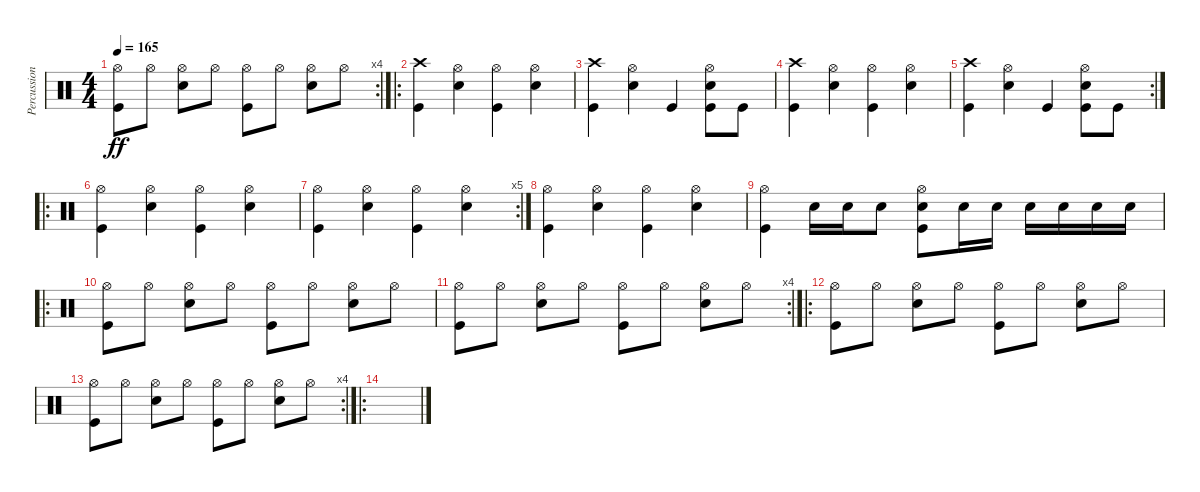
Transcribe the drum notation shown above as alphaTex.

\track ("Percussioni" "Percussion") {instrument percussion}
\staff {score}
\articulation defaults
\rc 4
\ts (4 4)
\tempo 165
\clef neutral
\ks c
("Hi-Hat (open)" "Kick (hit)").8{dy ff} "Hi-Hat (open)".8 ("Hi-Hat (open)" "Electric Snare (hit)").8 "Hi-Hat (open)".8 ("Hi-Hat (open)" "Kick (hit)").8 "Hi-Hat (open)".8 ("Hi-Hat (open)" "Electric Snare (hit)").8 "Hi-Hat (open)".8 |
\ro
("Crash high (hit)" "Kick (hit)").4 ("Hi-Hat (open)" "Electric Snare (hit)").4 ("Hi-Hat (open)" "Kick (hit)").4 ("Hi-Hat (open)" "Electric Snare (hit)").4 |
("Crash high (hit)" "Kick (hit)").4 ("Hi-Hat (open)" "Electric Snare (hit)").4 "Kick (hit)".4 ("Hi-Hat (open)" "Electric Snare (hit)" "Kick (hit)").8 "Kick (hit)".8 |
("Crash high (hit)" "Kick (hit)").4 ("Hi-Hat (open)" "Electric Snare (hit)").4 ("Hi-Hat (open)" "Kick (hit)").4 ("Hi-Hat (open)" "Electric Snare (hit)").4 |
\rc 2
("Crash high (hit)" "Kick (hit)").4 ("Hi-Hat (open)" "Electric Snare (hit)").4 "Kick (hit)".4 ("Hi-Hat (open)" "Electric Snare (hit)" "Kick (hit)").8 "Kick (hit)".8 |
\ro
("Hi-Hat (open)" "Kick (hit)").4 ("Hi-Hat (open)" "Electric Snare (hit)").4 ("Hi-Hat (open)" "Kick (hit)").4 ("Hi-Hat (open)" "Electric Snare (hit)").4 |
\rc 5
("Hi-Hat (open)" "Kick (hit)").4 ("Hi-Hat (open)" "Electric Snare (hit)").4 ("Hi-Hat (open)" "Kick (hit)").4 ("Hi-Hat (open)" "Electric Snare (hit)").4 |
("Hi-Hat (open)" "Kick (hit)").4 ("Hi-Hat (open)" "Electric Snare (hit)").4 ("Hi-Hat (open)" "Kick (hit)").4 ("Hi-Hat (open)" "Electric Snare (hit)").4 |
("Hi-Hat (open)" "Kick (hit)").4 "Electric Snare (hit)".16 "Electric Snare (hit)".16 "Electric Snare (hit)".8 ("Hi-Hat (open)" "Electric Snare (hit)" "Kick (hit)").8 "Electric Snare (hit)".16 "Electric Snare (hit)".16 "Electric Snare (hit)".16 "Electric Snare (hit)".16 "Electric Snare (hit)".16 "Electric Snare (hit)".16 |
\ro
("Hi-Hat (open)" "Kick (hit)").8 "Hi-Hat (open)".8 ("Hi-Hat (open)" "Electric Snare (hit)").8 "Hi-Hat (open)".8 ("Hi-Hat (open)" "Kick (hit)").8 "Hi-Hat (open)".8 ("Hi-Hat (open)" "Electric Snare (hit)").8 "Hi-Hat (open)".8 |
\rc 4
("Hi-Hat (open)" "Kick (hit)").8 "Hi-Hat (open)".8 ("Hi-Hat (open)" "Electric Snare (hit)").8 "Hi-Hat (open)".8 ("Hi-Hat (open)" "Kick (hit)").8 "Hi-Hat (open)".8 ("Hi-Hat (open)" "Electric Snare (hit)").8 "Hi-Hat (open)".8 |
\ro
("Hi-Hat (open)" "Kick (hit)").8 "Hi-Hat (open)".8 ("Hi-Hat (open)" "Electric Snare (hit)").8 "Hi-Hat (open)".8 ("Hi-Hat (open)" "Kick (hit)").8 "Hi-Hat (open)".8 ("Hi-Hat (open)" "Electric Snare (hit)").8 "Hi-Hat (open)".8 |
\rc 4
("Hi-Hat (open)" "Kick (hit)").8 "Hi-Hat (open)".8 ("Hi-Hat (open)" "Electric Snare (hit)").8 "Hi-Hat (open)".8 ("Hi-Hat (open)" "Kick (hit)").8 "Hi-Hat (open)".8 ("Hi-Hat (open)" "Electric Snare (hit)").8 "Hi-Hat (open)".8 |
\ro
